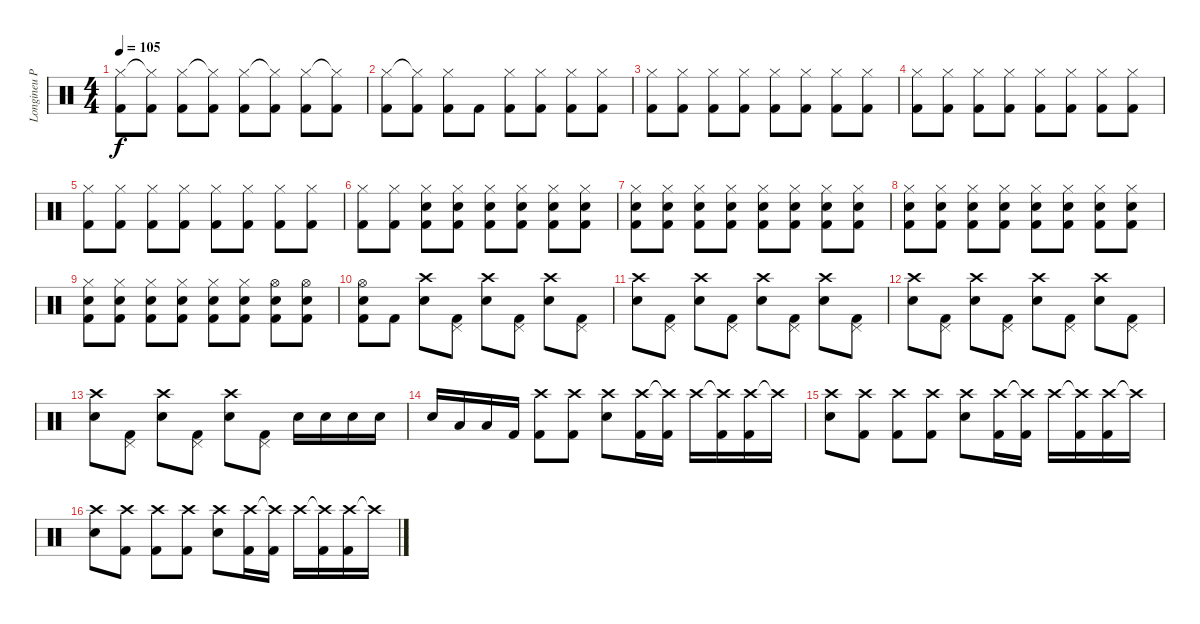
\track ("Longineu Parsons III" "Longineu P") {instrument percussion}
\staff {score}
\articulation defaults
\ts (4 4)
\tempo 105
\clef neutral
\ks c
("Hi-Hat (closed)" "Kick (hit) 2").8{dy f} ("Hi-Hat (closed)"{t} "Kick (hit) 2").8 ("Hi-Hat (closed)" "Kick (hit) 2").8 ("Hi-Hat (closed)"{t} "Kick (hit) 2").8 ("Hi-Hat (closed)" "Kick (hit) 2").8 ("Hi-Hat (closed)"{t} "Kick (hit) 2").8 ("Hi-Hat (closed)" "Kick (hit) 2").8 ("Hi-Hat (closed)"{t} "Kick (hit) 2").8 |
("Hi-Hat (closed)" "Kick (hit) 2").8 ("Hi-Hat (closed)"{t} "Kick (hit) 2").8 ("Hi-Hat (closed)" "Kick (hit) 2").8 "Kick (hit) 2".8 ("Hi-Hat (closed)" "Kick (hit) 2").8 ("Hi-Hat (closed)" "Kick (hit) 2").8 ("Hi-Hat (closed)" "Kick (hit) 2").8 ("Hi-Hat (closed)" "Kick (hit) 2").8 |
("Hi-Hat (closed)" "Kick (hit) 2").8 ("Hi-Hat (closed)" "Kick (hit) 2").8 ("Hi-Hat (closed)" "Kick (hit) 2").8 ("Hi-Hat (closed)" "Kick (hit) 2").8 ("Hi-Hat (closed)" "Kick (hit) 2").8 ("Hi-Hat (closed)" "Kick (hit) 2").8 ("Hi-Hat (closed)" "Kick (hit) 2").8 ("Hi-Hat (closed)" "Kick (hit) 2").8 |
("Hi-Hat (closed)" "Kick (hit) 2").8 ("Hi-Hat (closed)" "Kick (hit) 2").8 ("Hi-Hat (closed)" "Kick (hit) 2").8 ("Hi-Hat (closed)" "Kick (hit) 2").8 ("Hi-Hat (closed)" "Kick (hit) 2").8 ("Hi-Hat (closed)" "Kick (hit) 2").8 ("Hi-Hat (closed)" "Kick (hit) 2").8 ("Hi-Hat (closed)" "Kick (hit) 2").8 |
("Hi-Hat (closed)" "Kick (hit) 2").8 ("Hi-Hat (closed)" "Kick (hit) 2").8 ("Hi-Hat (closed)" "Kick (hit) 2").8 ("Hi-Hat (closed)" "Kick (hit) 2").8 ("Hi-Hat (closed)" "Kick (hit) 2").8 ("Hi-Hat (closed)" "Kick (hit) 2").8 ("Hi-Hat (closed)" "Kick (hit) 2").8 ("Hi-Hat (closed)" "Kick (hit) 2").8 |
("Hi-Hat (closed)" "Kick (hit) 2").8 ("Hi-Hat (closed)" "Kick (hit) 2").8 ("Electric Snare (hit)" "Hi-Hat (closed)" "Kick (hit) 2").8 ("Electric Snare (hit)" "Hi-Hat (closed)" "Kick (hit) 2").8 ("Electric Snare (hit)" "Hi-Hat (closed)" "Kick (hit) 2").8 ("Electric Snare (hit)" "Hi-Hat (closed)" "Kick (hit) 2").8 ("Electric Snare (hit)" "Hi-Hat (closed)" "Kick (hit) 2").8 ("Electric Snare (hit)" "Hi-Hat (closed)" "Kick (hit) 2").8 |
("Electric Snare (hit)" "Hi-Hat (closed)" "Kick (hit) 2").8 ("Electric Snare (hit)" "Hi-Hat (closed)" "Kick (hit) 2").8 ("Electric Snare (hit)" "Hi-Hat (closed)" "Kick (hit) 2").8 ("Electric Snare (hit)" "Hi-Hat (closed)" "Kick (hit) 2").8 ("Electric Snare (hit)" "Hi-Hat (closed)" "Kick (hit) 2").8 ("Electric Snare (hit)" "Hi-Hat (closed)" "Kick (hit) 2").8 ("Electric Snare (hit)" "Hi-Hat (closed)" "Kick (hit) 2").8 ("Electric Snare (hit)" "Hi-Hat (closed)" "Kick (hit) 2").8 |
("Electric Snare (hit)" "Hi-Hat (closed)" "Kick (hit) 2").8 ("Electric Snare (hit)" "Hi-Hat (closed)" "Kick (hit) 2").8 ("Electric Snare (hit)" "Hi-Hat (closed)" "Kick (hit) 2").8 ("Electric Snare (hit)" "Hi-Hat (closed)" "Kick (hit) 2").8 ("Electric Snare (hit)" "Hi-Hat (closed)" "Kick (hit) 2").8 ("Electric Snare (hit)" "Hi-Hat (closed)" "Kick (hit) 2").8 ("Electric Snare (hit)" "Hi-Hat (closed)" "Kick (hit) 2").8 ("Electric Snare (hit)" "Hi-Hat (closed)" "Kick (hit) 2").8 |
("Electric Snare (hit)" "Hi-Hat (closed)" "Kick (hit) 2").8 ("Electric Snare (hit)" "Hi-Hat (closed)" "Kick (hit) 2").8 ("Electric Snare (hit)" "Hi-Hat (closed)" "Kick (hit) 2").8 ("Electric Snare (hit)" "Hi-Hat (closed)" "Kick (hit) 2").8 ("Electric Snare (hit)" "Hi-Hat (closed)" "Kick (hit) 2").8 ("Electric Snare (hit)" "Hi-Hat (closed)" "Kick (hit) 2").8 ("Electric Snare (hit)" "Hi-Hat (open)" "Kick (hit) 2").8 ("Electric Snare (hit)" "Hi-Hat (open)" "Kick (hit) 2").8 |
("Electric Snare (hit)" "Hi-Hat (open)" "Kick (hit) 2").8 "Kick (hit) 2".8 ("Crash high (hit)" "Electric Snare (hit)").8 ("Pedal Hi-Hat (hit)" "Kick (hit) 2").8 ("Crash high (hit)" "Electric Snare (hit)").8 ("Pedal Hi-Hat (hit)" "Kick (hit) 2").8 ("Crash high (hit)" "Electric Snare (hit)").8 ("Pedal Hi-Hat (hit)" "Kick (hit) 2").8 |
("Crash high (hit)" "Electric Snare (hit)").8 ("Pedal Hi-Hat (hit)" "Kick (hit) 2").8 ("Crash high (hit)" "Electric Snare (hit)").8 ("Pedal Hi-Hat (hit)" "Kick (hit) 2").8 ("Crash high (hit)" "Electric Snare (hit)").8 ("Pedal Hi-Hat (hit)" "Kick (hit) 2").8 ("Crash high (hit)" "Electric Snare (hit)").8 ("Pedal Hi-Hat (hit)" "Kick (hit) 2").8 |
("Crash high (hit)" "Electric Snare (hit)").8 ("Pedal Hi-Hat (hit)" "Kick (hit) 2").8 ("Crash high (hit)" "Electric Snare (hit)").8 ("Pedal Hi-Hat (hit)" "Kick (hit) 2").8 ("Crash high (hit)" "Electric Snare (hit)").8 ("Pedal Hi-Hat (hit)" "Kick (hit) 2").8 ("Crash high (hit)" "Electric Snare (hit)").8 ("Pedal Hi-Hat (hit)" "Kick (hit) 2").8 |
("Crash high (hit)" "Electric Snare (hit)").8 ("Pedal Hi-Hat (hit)" "Kick (hit) 2").8 ("Crash high (hit)" "Electric Snare (hit)").8 ("Pedal Hi-Hat (hit)" "Kick (hit) 2").8 ("Crash high (hit)" "Electric Snare (hit)").8 ("Pedal Hi-Hat (hit)" "Kick (hit) 2").8 "Electric Snare (hit)".16 "Electric Snare (hit)".16 "Electric Snare (hit)".16 "Electric Snare (hit)".16 |
"Electric Snare (hit)".16 "Low Tom (hit)".16 "Low Tom (hit)".16 "Kick (hit) 2".16 ("Crash high (hit)" "Kick (hit) 2").8 ("Crash high (hit)" "Kick (hit) 2").8 ("Crash high (hit)" "Electric Snare (hit)").8 ("Crash high (hit)" "Kick (hit) 2").16 ("Crash high (hit)"{t} "Kick (hit) 2").16 "Crash high (hit)".16 ("Crash high (hit)"{t} "Kick (hit) 2").16 ("Crash high (hit)" "Kick (hit) 2").16 "Crash high (hit)"{t}.16 |
("Crash high (hit)" "Electric Snare (hit)").8 ("Crash high (hit)" "Kick (hit) 2").8 ("Crash high (hit)" "Kick (hit) 2").8 ("Crash high (hit)" "Kick (hit) 2").8 ("Crash high (hit)" "Electric Snare (hit)").8 ("Crash high (hit)" "Kick (hit) 2").16 ("Crash high (hit)"{t} "Kick (hit) 2").16 "Crash high (hit)".16 ("Crash high (hit)"{t} "Kick (hit) 2").16 ("Crash high (hit)" "Kick (hit) 2").16 "Crash high (hit)"{t}.16 |
("Crash high (hit)" "Electric Snare (hit)").8 ("Crash high (hit)" "Kick (hit) 2").8 ("Crash high (hit)" "Kick (hit) 2").8 ("Crash high (hit)" "Kick (hit) 2").8 ("Crash high (hit)" "Electric Snare (hit)").8 ("Crash high (hit)" "Kick (hit) 2").16 ("Crash high (hit)"{t} "Kick (hit) 2").16 "Crash high (hit)".16 ("Crash high (hit)"{t} "Kick (hit) 2").16 ("Crash high (hit)" "Kick (hit) 2").16 "Crash high (hit)"{t}.16
